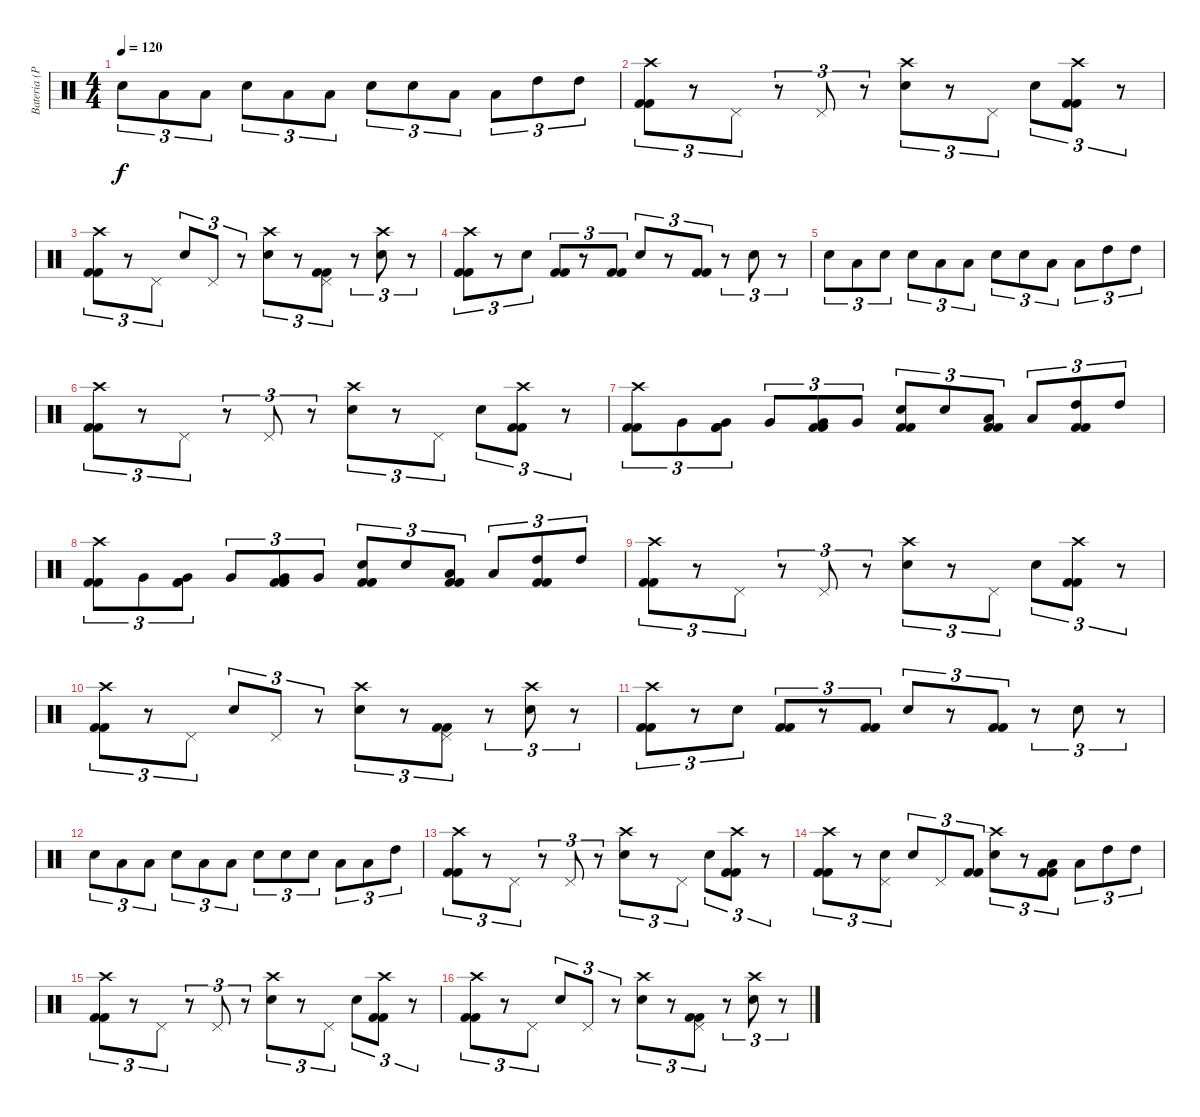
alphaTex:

\track ("Bateria (Pedro Cota)" "Bateria (P") {instrument percussion}
\staff {score}
\articulation defaults
\ts (4 4)
\tempo 120
\clef neutral
\ks c "Snare (hit) 2".8{tu (3 2) dy f} "Low Tom (hit)".8{tu (3 2)} "Low Tom (hit)".8{tu (3 2)} "Snare (hit) 2".8{tu (3 2)} "Low Tom (hit)".8{tu (3 2)} "Low Tom (hit)".8{tu (3 2)} "Snare (hit) 2".8{tu (3 2)} "Snare (hit) 2".8{tu (3 2)} "Low Tom (hit)".8{tu (3 2)} "Low Tom (hit)".8{tu (3 2)} "High Tom (hit)".8{tu (3 2)} "High Tom (hit)".8{tu (3 2)}
|
("Crash high (hit)" "Kick (hit) 2" "Kick (hit) 2").8{tu (3 2)} r.8{tu (3 2)} "Pedal Hi-Hat (hit)".8{tu (3 2)} r.8{tu (3 2)} "Pedal Hi-Hat (hit)".8{tu (3 2)} r.8{tu (3 2)} ("Crash high (hit)" "Snare (hit) 2").8{tu (3 2)} r.8{tu (3 2)} "Pedal Hi-Hat (hit)".8{tu (3 2)} "Snare (hit) 2".8{tu (3 2)} ("Crash high (hit)" "Kick (hit) 2" "Kick (hit) 2").8{tu (3 2)} r.8{tu (3 2)} |
("Crash high (hit)" "Kick (hit) 2" "Kick (hit) 2").8{tu (3 2)} r.8{tu (3 2)} "Pedal Hi-Hat (hit)".8{tu (3 2)} "Snare (hit) 2".8{tu (3 2)} "Pedal Hi-Hat (hit)".8{tu (3 2)} r.8{tu (3 2)} ("Crash high (hit)" "Snare (hit) 2").8{tu (3 2)} r.8{tu (3 2)} ("Pedal Hi-Hat (hit)" "Kick (hit) 2" "Kick (hit) 2").8{tu (3 2)} r.8{tu (3 2)} ("Crash high (hit)" "Snare (hit) 2").8{tu (3 2)} r.8{tu (3 2)} |
("Crash high (hit)" "Kick (hit) 2" "Kick (hit) 2").8{tu (3 2)} r.8{tu (3 2)} "Snare (hit) 2".8{tu (3 2)} ("Kick (hit) 2" "Kick (hit) 2").8{tu (3 2)} r.8{tu (3 2)} ("Kick (hit) 2" "Kick (hit) 2").8{tu (3 2)} "Snare (hit) 2".8{tu (3 2)} r.8{tu (3 2)} ("Kick (hit) 2" "Kick (hit) 2").8{tu (3 2)} r.8{tu (3 2)} "Snare (hit) 2".8{tu (3 2)} r.8{tu (3 2)} |
"Snare (hit) 2".8{tu (3 2)} "Low Tom (hit)".8{tu (3 2)} "Snare (hit) 2".8{tu (3 2)} "Snare (hit) 2".8{tu (3 2)} "Low Tom (hit)".8{tu (3 2)} "Low Tom (hit)".8{tu (3 2)} "Snare (hit) 2".8{tu (3 2)} "Snare (hit) 2".8{tu (3 2)} "Low Tom (hit)".8{tu (3 2)} "Low Tom (hit)".8{tu (3 2)} "High Tom (hit)".8{tu (3 2)} "High Tom (hit)".8{tu (3 2)} |
("Crash high (hit)" "Kick (hit) 2" "Kick (hit) 2").8{tu (3 2)} r.8{tu (3 2)} "Pedal Hi-Hat (hit)".8{tu (3 2)} r.8{tu (3 2)} "Pedal Hi-Hat (hit)".8{tu (3 2)} r.8{tu (3 2)} ("Crash high (hit)" "Snare (hit) 2").8{tu (3 2)} r.8{tu (3 2)} "Pedal Hi-Hat (hit)".8{tu (3 2)} "Snare (hit) 2".8{tu (3 2)} ("Crash high (hit)" "Kick (hit) 2" "Kick (hit) 2").8{tu (3 2)} r.8{tu (3 2)} |
("Crash high (hit)" "Kick (hit) 2" "Kick (hit) 2").8{tu (3 2)} "Very Low Tom (hit)".8{tu (3 2)} ("Very Low Tom (hit)" "Kick (hit) 2" "Kick (hit) 2").8{tu (3 2)} "Very Low Tom (hit)".8{tu (3 2)} ("Very Low Tom (hit)" "Kick (hit) 2" "Kick (hit) 2").8{tu (3 2)} "Very Low Tom (hit)".8{tu (3 2)} ("Snare (hit) 2" "Kick (hit) 2" "Kick (hit) 2").8{tu (3 2)} "Snare (hit) 2".8{tu (3 2)} ("Low Tom (hit)" "Kick (hit) 2" "Kick (hit) 2").8{tu (3 2)} "Low Tom (hit)".8{tu (3 2)} ("High Tom (hit)" "Kick (hit) 2" "Kick (hit) 2").8{tu (3 2)} "High Tom (hit)".8{tu (3 2)} |
("Crash high (hit)" "Kick (hit) 2" "Kick (hit) 2").8{tu (3 2)} "Very Low Tom (hit)".8{tu (3 2)} ("Very Low Tom (hit)" "Kick (hit) 2" "Kick (hit) 2").8{tu (3 2)} "Very Low Tom (hit)".8{tu (3 2)} ("Very Low Tom (hit)" "Kick (hit) 2" "Kick (hit) 2").8{tu (3 2)} "Very Low Tom (hit)".8{tu (3 2)} ("Snare (hit) 2" "Kick (hit) 2" "Kick (hit) 2").8{tu (3 2)} "Snare (hit) 2".8{tu (3 2)} ("Low Tom (hit)" "Kick (hit) 2" "Kick (hit) 2").8{tu (3 2)} "Low Tom (hit)".8{tu (3 2)} ("High Tom (hit)" "Kick (hit) 2" "Kick (hit) 2").8{tu (3 2)} "High Tom (hit)".8{tu (3 2)} |
("Crash high (hit)" "Kick (hit) 2" "Kick (hit) 2").8{tu (3 2)} r.8{tu (3 2)} "Pedal Hi-Hat (hit)".8{tu (3 2)} r.8{tu (3 2)} "Pedal Hi-Hat (hit)".8{tu (3 2)} r.8{tu (3 2)} ("Crash high (hit)" "Snare (hit) 2").8{tu (3 2)} r.8{tu (3 2)} "Pedal Hi-Hat (hit)".8{tu (3 2)} "Snare (hit) 2".8{tu (3 2)} ("Crash high (hit)" "Kick (hit) 2" "Kick (hit) 2").8{tu (3 2)} r.8{tu (3 2)} |
("Crash high (hit)" "Kick (hit) 2" "Kick (hit) 2").8{tu (3 2)} r.8{tu (3 2)} "Pedal Hi-Hat (hit)".8{tu (3 2)} "Snare (hit) 2".8{tu (3 2)} "Pedal Hi-Hat (hit)".8{tu (3 2)} r.8{tu (3 2)} ("Crash high (hit)" "Snare (hit) 2").8{tu (3 2)} r.8{tu (3 2)} ("Pedal Hi-Hat (hit)" "Kick (hit) 2" "Kick (hit) 2").8{tu (3 2)} r.8{tu (3 2)} ("Crash high (hit)" "Snare (hit) 2").8{tu (3 2)} r.8{tu (3 2)} |
("Crash high (hit)" "Kick (hit) 2" "Kick (hit) 2").8{tu (3 2)} r.8{tu (3 2)} "Snare (hit) 2".8{tu (3 2)} ("Kick (hit) 2" "Kick (hit) 2").8{tu (3 2)} r.8{tu (3 2)} ("Kick (hit) 2" "Kick (hit) 2").8{tu (3 2)} "Snare (hit) 2".8{tu (3 2)} r.8{tu (3 2)} ("Kick (hit) 2" "Kick (hit) 2").8{tu (3 2)} r.8{tu (3 2)} "Snare (hit) 2".8{tu (3 2)} r.8{tu (3 2)} |
"Snare (hit) 2".8{tu (3 2)} "Low Tom (hit)".8{tu (3 2)} "Low Tom (hit)".8{tu (3 2)} "Snare (hit) 2".8{tu (3 2)} "Low Tom (hit)".8{tu (3 2)} "Low Tom (hit)".8{tu (3 2)} "Snare (hit) 2".8{tu (3 2)} "Snare (hit) 2".8{tu (3 2)} "Snare (hit) 2".8{tu (3 2)} "Low Tom (hit)".8{tu (3 2)} "Low Tom (hit)".8{tu (3 2)} "High Tom (hit)".8{tu (3 2)} |
("Crash high (hit)" "Kick (hit) 2" "Kick (hit) 2").8{tu (3 2)} r.8{tu (3 2)} "Pedal Hi-Hat (hit)".8{tu (3 2)} r.8{tu (3 2)} "Pedal Hi-Hat (hit)".8{tu (3 2)} r.8{tu (3 2)} ("Crash high (hit)" "Snare (hit) 2").8{tu (3 2)} r.8{tu (3 2)} "Pedal Hi-Hat (hit)".8{tu (3 2)} "Snare (hit) 2".8{tu (3 2)} ("Crash high (hit)" "Kick (hit) 2" "Kick (hit) 2").8{tu (3 2)} r.8{tu (3 2)} |
("Crash high (hit)" "Kick (hit) 2" "Kick (hit) 2").8{tu (3 2)} r.8{tu (3 2)} ("Pedal Hi-Hat (hit)" "Snare (hit) 2").8{tu (3 2)} "Snare (hit) 2".8{tu (3 2)} "Pedal Hi-Hat (hit)".8{tu (3 2)} ("Kick (hit) 2" "Kick (hit) 2").8{tu (3 2)} ("Crash high (hit)" "Snare (hit) 2").8{tu (3 2)} r.8{tu (3 2)} ("Low Tom (hit)" "Kick (hit) 2" "Kick (hit) 2").8{tu (3 2)} "Low Tom (hit)".8{tu (3 2)} "High Tom (hit)".8{tu (3 2)} "High Tom (hit)".8{tu (3 2)} |
("Crash high (hit)" "Kick (hit) 2" "Kick (hit) 2").8{tu (3 2)} r.8{tu (3 2)} "Pedal Hi-Hat (hit)".8{tu (3 2)} r.8{tu (3 2)} "Pedal Hi-Hat (hit)".8{tu (3 2)} r.8{tu (3 2)} ("Crash high (hit)" "Snare (hit) 2").8{tu (3 2)} r.8{tu (3 2)} "Pedal Hi-Hat (hit)".8{tu (3 2)} "Snare (hit) 2".8{tu (3 2)} ("Crash high (hit)" "Kick (hit) 2" "Kick (hit) 2").8{tu (3 2)} r.8{tu (3 2)} |
("Crash high (hit)" "Kick (hit) 2" "Kick (hit) 2").8{tu (3 2)} r.8{tu (3 2)} "Pedal Hi-Hat (hit)".8{tu (3 2)} "Snare (hit) 2".8{tu (3 2)} "Pedal Hi-Hat (hit)".8{tu (3 2)} r.8{tu (3 2)} ("Crash high (hit)" "Snare (hit) 2").8{tu (3 2)} r.8{tu (3 2)} ("Pedal Hi-Hat (hit)" "Kick (hit) 2" "Kick (hit) 2").8{tu (3 2)} r.8{tu (3 2)} ("Crash high (hit)" "Snare (hit) 2").8{tu (3 2)} r.8{tu (3 2)}
